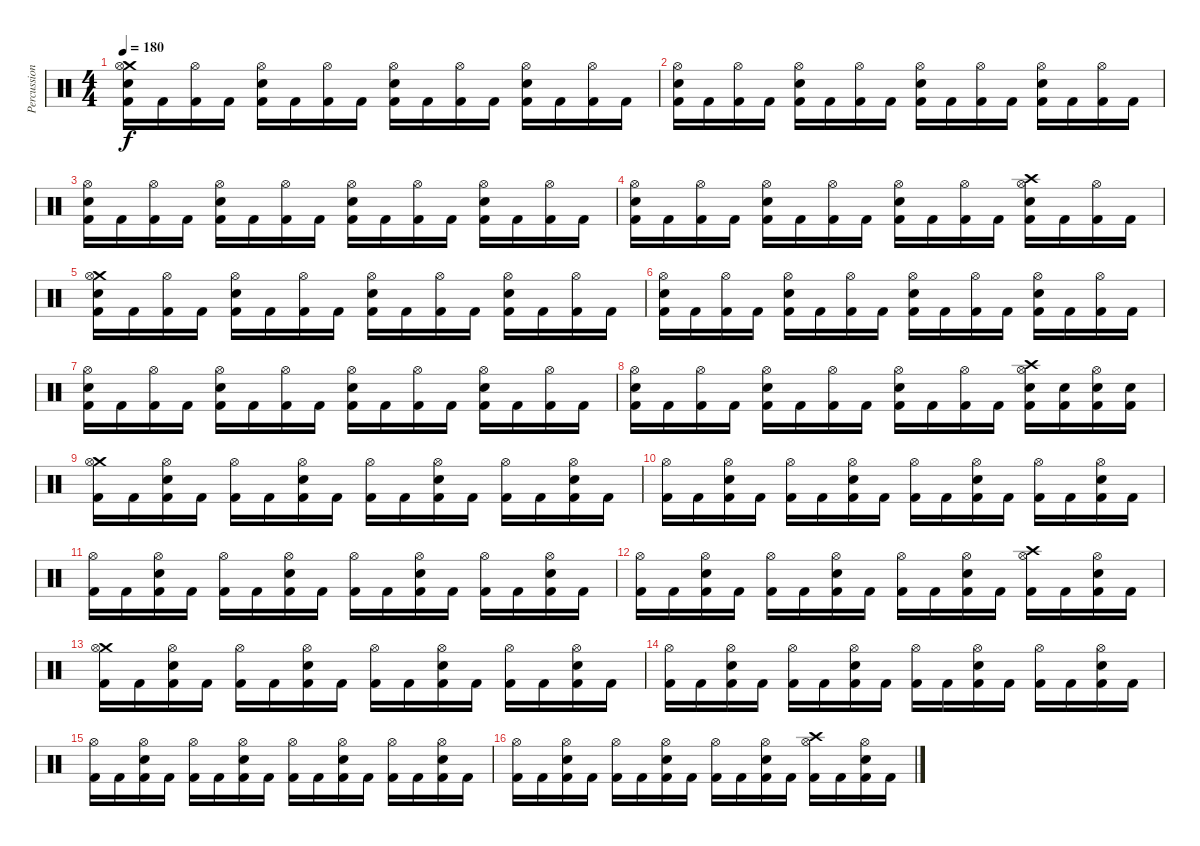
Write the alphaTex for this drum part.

\track ("Percussion" "Percussion") {instrument percussion}
\staff {score}
\articulation defaults
\ts (4 4)
\tempo 180
\clef neutral
\ks c
("Crash medium (hit)" "Hi-Hat (open)" "Electric Snare (hit)" "Kick (hit) 2").16{dy f} "Kick (hit) 2".16 ("Hi-Hat (open)" "Kick (hit) 2").16 "Kick (hit) 2".16 ("Hi-Hat (open)" "Electric Snare (hit)" "Kick (hit) 2").16 "Kick (hit) 2".16 ("Hi-Hat (open)" "Kick (hit) 2").16 "Kick (hit) 2".16 ("Hi-Hat (open)" "Electric Snare (hit)" "Kick (hit) 2").16 "Kick (hit) 2".16 ("Hi-Hat (open)" "Kick (hit) 2").16 "Kick (hit) 2".16 ("Hi-Hat (open)" "Electric Snare (hit)" "Kick (hit) 2").16 "Kick (hit) 2".16 ("Hi-Hat (open)" "Kick (hit) 2").16 "Kick (hit) 2".16 |
("Hi-Hat (open)" "Electric Snare (hit)" "Kick (hit) 2").16 "Kick (hit) 2".16 ("Hi-Hat (open)" "Kick (hit) 2").16 "Kick (hit) 2".16 ("Hi-Hat (open)" "Electric Snare (hit)" "Kick (hit) 2").16 "Kick (hit) 2".16 ("Hi-Hat (open)" "Kick (hit) 2").16 "Kick (hit) 2".16 ("Hi-Hat (open)" "Electric Snare (hit)" "Kick (hit) 2").16 "Kick (hit) 2".16 ("Hi-Hat (open)" "Kick (hit) 2").16 "Kick (hit) 2".16 ("Hi-Hat (open)" "Electric Snare (hit)" "Kick (hit) 2").16 "Kick (hit) 2".16 ("Hi-Hat (open)" "Kick (hit) 2").16 "Kick (hit) 2".16 |
("Hi-Hat (open)" "Electric Snare (hit)" "Kick (hit) 2").16 "Kick (hit) 2".16 ("Hi-Hat (open)" "Kick (hit) 2").16 "Kick (hit) 2".16 ("Hi-Hat (open)" "Electric Snare (hit)" "Kick (hit) 2").16 "Kick (hit) 2".16 ("Hi-Hat (open)" "Kick (hit) 2").16 "Kick (hit) 2".16 ("Hi-Hat (open)" "Electric Snare (hit)" "Kick (hit) 2").16 "Kick (hit) 2".16 ("Hi-Hat (open)" "Kick (hit) 2").16 "Kick (hit) 2".16 ("Hi-Hat (open)" "Electric Snare (hit)" "Kick (hit) 2").16 "Kick (hit) 2".16 ("Hi-Hat (open)" "Kick (hit) 2").16 "Kick (hit) 2".16 |
("Hi-Hat (open)" "Electric Snare (hit)" "Kick (hit) 2").16 "Kick (hit) 2".16 ("Hi-Hat (open)" "Kick (hit) 2").16 "Kick (hit) 2".16 ("Hi-Hat (open)" "Electric Snare (hit)" "Kick (hit) 2").16 "Kick (hit) 2".16 ("Hi-Hat (open)" "Kick (hit) 2").16 "Kick (hit) 2".16 ("Hi-Hat (open)" "Electric Snare (hit)" "Kick (hit) 2").16 "Kick (hit) 2".16 ("Hi-Hat (open)" "Kick (hit) 2").16 "Kick (hit) 2".16 ("Crash high (hit)" "Hi-Hat (open)" "Electric Snare (hit)" "Kick (hit) 2").16 "Kick (hit) 2".16 ("Hi-Hat (open)" "Kick (hit) 2").16 "Kick (hit) 2".16 |
("Crash medium (hit)" "Hi-Hat (open)" "Electric Snare (hit)" "Kick (hit) 2").16 "Kick (hit) 2".16 ("Hi-Hat (open)" "Kick (hit) 2").16 "Kick (hit) 2".16 ("Hi-Hat (open)" "Electric Snare (hit)" "Kick (hit) 2").16 "Kick (hit) 2".16 ("Hi-Hat (open)" "Kick (hit) 2").16 "Kick (hit) 2".16 ("Hi-Hat (open)" "Electric Snare (hit)" "Kick (hit) 2").16 "Kick (hit) 2".16 ("Hi-Hat (open)" "Kick (hit) 2").16 "Kick (hit) 2".16 ("Hi-Hat (open)" "Electric Snare (hit)" "Kick (hit) 2").16 "Kick (hit) 2".16 ("Hi-Hat (open)" "Kick (hit) 2").16 "Kick (hit) 2".16 |
("Hi-Hat (open)" "Electric Snare (hit)" "Kick (hit) 2").16 "Kick (hit) 2".16 ("Hi-Hat (open)" "Kick (hit) 2").16 "Kick (hit) 2".16 ("Hi-Hat (open)" "Electric Snare (hit)" "Kick (hit) 2").16 "Kick (hit) 2".16 ("Hi-Hat (open)" "Kick (hit) 2").16 "Kick (hit) 2".16 ("Hi-Hat (open)" "Electric Snare (hit)" "Kick (hit) 2").16 "Kick (hit) 2".16 ("Hi-Hat (open)" "Kick (hit) 2").16 "Kick (hit) 2".16 ("Hi-Hat (open)" "Electric Snare (hit)" "Kick (hit) 2").16 "Kick (hit) 2".16 ("Hi-Hat (open)" "Kick (hit) 2").16 "Kick (hit) 2".16 |
("Hi-Hat (open)" "Electric Snare (hit)" "Kick (hit) 2").16 "Kick (hit) 2".16 ("Hi-Hat (open)" "Kick (hit) 2").16 "Kick (hit) 2".16 ("Hi-Hat (open)" "Electric Snare (hit)" "Kick (hit) 2").16 "Kick (hit) 2".16 ("Hi-Hat (open)" "Kick (hit) 2").16 "Kick (hit) 2".16 ("Hi-Hat (open)" "Electric Snare (hit)" "Kick (hit) 2").16 "Kick (hit) 2".16 ("Hi-Hat (open)" "Kick (hit) 2").16 "Kick (hit) 2".16 ("Hi-Hat (open)" "Electric Snare (hit)" "Kick (hit) 2").16 "Kick (hit) 2".16 ("Hi-Hat (open)" "Kick (hit) 2").16 "Kick (hit) 2".16 |
("Hi-Hat (open)" "Electric Snare (hit)" "Kick (hit) 2").16 "Kick (hit) 2".16 ("Hi-Hat (open)" "Kick (hit) 2").16 "Kick (hit) 2".16 ("Hi-Hat (open)" "Electric Snare (hit)" "Kick (hit) 2").16 "Kick (hit) 2".16 ("Hi-Hat (open)" "Kick (hit) 2").16 "Kick (hit) 2".16 ("Hi-Hat (open)" "Electric Snare (hit)" "Kick (hit) 2").16 "Kick (hit) 2".16 ("Hi-Hat (open)" "Kick (hit) 2").16 "Kick (hit) 2".16 ("Crash high (hit)" "Hi-Hat (open)" "Electric Snare (hit)" "Kick (hit) 2").16 ("Electric Snare (hit)" "Kick (hit) 2").16 ("Hi-Hat (open)" "Electric Snare (hit)" "Kick (hit) 2").16 ("Electric Snare (hit)" "Kick (hit) 2").16 |
("Crash medium (hit)" "Hi-Hat (open)" "Kick (hit) 2").16 "Kick (hit) 2".16 ("Hi-Hat (open)" "Electric Snare (hit)" "Kick (hit) 2").16 "Kick (hit) 2".16 ("Hi-Hat (open)" "Kick (hit) 2").16 "Kick (hit) 2".16 ("Hi-Hat (open)" "Electric Snare (hit)" "Kick (hit) 2").16 "Kick (hit) 2".16 ("Hi-Hat (open)" "Kick (hit) 2").16 "Kick (hit) 2".16 ("Hi-Hat (open)" "Electric Snare (hit)" "Kick (hit) 2").16 "Kick (hit) 2".16 ("Hi-Hat (open)" "Kick (hit) 2").16 "Kick (hit) 2".16 ("Hi-Hat (open)" "Electric Snare (hit)" "Kick (hit) 2").16 "Kick (hit) 2".16 |
("Hi-Hat (open)" "Kick (hit) 2").16 "Kick (hit) 2".16 ("Hi-Hat (open)" "Electric Snare (hit)" "Kick (hit) 2").16 "Kick (hit) 2".16 ("Hi-Hat (open)" "Kick (hit) 2").16 "Kick (hit) 2".16 ("Hi-Hat (open)" "Electric Snare (hit)" "Kick (hit) 2").16 "Kick (hit) 2".16 ("Hi-Hat (open)" "Kick (hit) 2").16 "Kick (hit) 2".16 ("Hi-Hat (open)" "Electric Snare (hit)" "Kick (hit) 2").16 "Kick (hit) 2".16 ("Hi-Hat (open)" "Kick (hit) 2").16 "Kick (hit) 2".16 ("Hi-Hat (open)" "Electric Snare (hit)" "Kick (hit) 2").16 "Kick (hit) 2".16 |
("Hi-Hat (open)" "Kick (hit) 2").16 "Kick (hit) 2".16 ("Hi-Hat (open)" "Electric Snare (hit)" "Kick (hit) 2").16 "Kick (hit) 2".16 ("Hi-Hat (open)" "Kick (hit) 2").16 "Kick (hit) 2".16 ("Hi-Hat (open)" "Electric Snare (hit)" "Kick (hit) 2").16 "Kick (hit) 2".16 ("Hi-Hat (open)" "Kick (hit) 2").16 "Kick (hit) 2".16 ("Hi-Hat (open)" "Electric Snare (hit)" "Kick (hit) 2").16 "Kick (hit) 2".16 ("Hi-Hat (open)" "Kick (hit) 2").16 "Kick (hit) 2".16 ("Hi-Hat (open)" "Electric Snare (hit)" "Kick (hit) 2").16 "Kick (hit) 2".16 |
("Hi-Hat (open)" "Kick (hit) 2").16 "Kick (hit) 2".16 ("Hi-Hat (open)" "Electric Snare (hit)" "Kick (hit) 2").16 "Kick (hit) 2".16 ("Hi-Hat (open)" "Kick (hit) 2").16 "Kick (hit) 2".16 ("Hi-Hat (open)" "Electric Snare (hit)" "Kick (hit) 2").16 "Kick (hit) 2".16 ("Hi-Hat (open)" "Kick (hit) 2").16 "Kick (hit) 2".16 ("Hi-Hat (open)" "Electric Snare (hit)" "Kick (hit) 2").16 "Kick (hit) 2".16 ("Crash high (hit)" "Hi-Hat (open)" "Kick (hit) 2").16 "Kick (hit) 2".16 ("Hi-Hat (open)" "Electric Snare (hit)" "Kick (hit) 2").16 "Kick (hit) 2".16 |
("Crash medium (hit)" "Hi-Hat (open)" "Kick (hit) 2").16 "Kick (hit) 2".16 ("Hi-Hat (open)" "Electric Snare (hit)" "Kick (hit) 2").16 "Kick (hit) 2".16 ("Hi-Hat (open)" "Kick (hit) 2").16 "Kick (hit) 2".16 ("Hi-Hat (open)" "Electric Snare (hit)" "Kick (hit) 2").16 "Kick (hit) 2".16 ("Hi-Hat (open)" "Kick (hit) 2").16 "Kick (hit) 2".16 ("Hi-Hat (open)" "Electric Snare (hit)" "Kick (hit) 2").16 "Kick (hit) 2".16 ("Hi-Hat (open)" "Kick (hit) 2").16 "Kick (hit) 2".16 ("Hi-Hat (open)" "Electric Snare (hit)" "Kick (hit) 2").16 "Kick (hit) 2".16 |
("Hi-Hat (open)" "Kick (hit) 2").16 "Kick (hit) 2".16 ("Hi-Hat (open)" "Electric Snare (hit)" "Kick (hit) 2").16 "Kick (hit) 2".16 ("Hi-Hat (open)" "Kick (hit) 2").16 "Kick (hit) 2".16 ("Hi-Hat (open)" "Electric Snare (hit)" "Kick (hit) 2").16 "Kick (hit) 2".16 ("Hi-Hat (open)" "Kick (hit) 2").16 "Kick (hit) 2".16 ("Hi-Hat (open)" "Electric Snare (hit)" "Kick (hit) 2").16 "Kick (hit) 2".16 ("Hi-Hat (open)" "Kick (hit) 2").16 "Kick (hit) 2".16 ("Hi-Hat (open)" "Electric Snare (hit)" "Kick (hit) 2").16 "Kick (hit) 2".16 |
("Hi-Hat (open)" "Kick (hit) 2").16 "Kick (hit) 2".16 ("Hi-Hat (open)" "Electric Snare (hit)" "Kick (hit) 2").16 "Kick (hit) 2".16 ("Hi-Hat (open)" "Kick (hit) 2").16 "Kick (hit) 2".16 ("Hi-Hat (open)" "Electric Snare (hit)" "Kick (hit) 2").16 "Kick (hit) 2".16 ("Hi-Hat (open)" "Kick (hit) 2").16 "Kick (hit) 2".16 ("Hi-Hat (open)" "Electric Snare (hit)" "Kick (hit) 2").16 "Kick (hit) 2".16 ("Hi-Hat (open)" "Kick (hit) 2").16 "Kick (hit) 2".16 ("Hi-Hat (open)" "Electric Snare (hit)" "Kick (hit) 2").16 "Kick (hit) 2".16 |
("Hi-Hat (open)" "Kick (hit) 2").16 "Kick (hit) 2".16 ("Hi-Hat (open)" "Electric Snare (hit)" "Kick (hit) 2").16 "Kick (hit) 2".16 ("Hi-Hat (open)" "Kick (hit) 2").16 "Kick (hit) 2".16 ("Hi-Hat (open)" "Electric Snare (hit)" "Kick (hit) 2").16 "Kick (hit) 2".16 ("Hi-Hat (open)" "Kick (hit) 2").16 "Kick (hit) 2".16 ("Hi-Hat (open)" "Electric Snare (hit)" "Kick (hit) 2").16 "Kick (hit) 2".16 ("Crash high (hit)" "Hi-Hat (open)" "Kick (hit) 2").16 "Kick (hit) 2".16 ("Hi-Hat (open)" "Electric Snare (hit)" "Kick (hit) 2").16 "Kick (hit) 2".16
